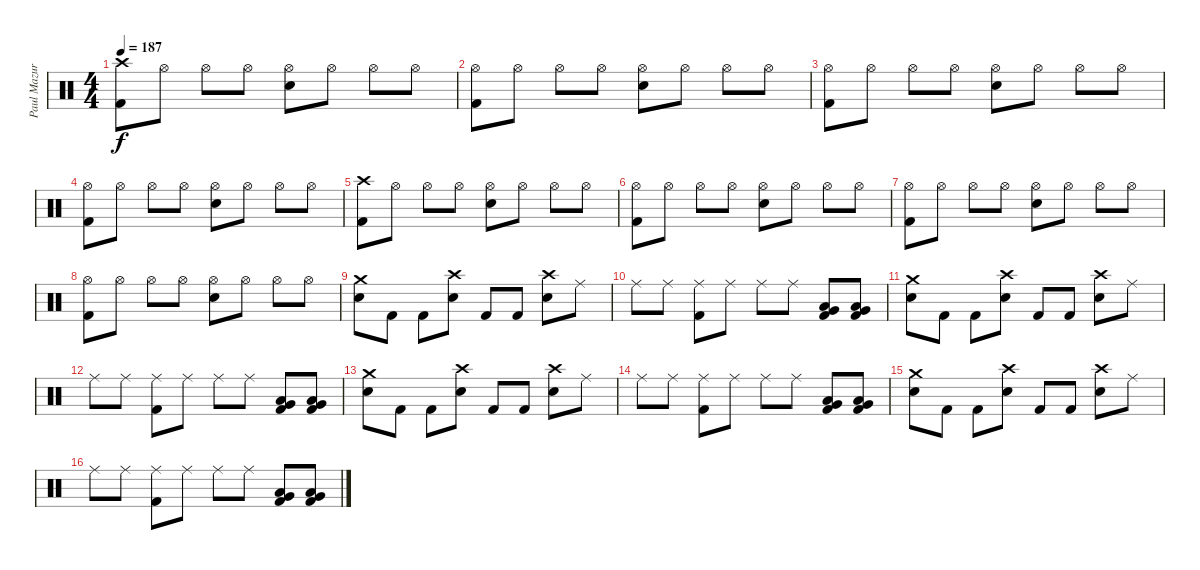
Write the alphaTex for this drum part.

\track ("Paul Mazurkiewicz - Drums" "Paul Mazur") {instrument percussion}
\staff {score}
\articulation defaults
\ts (4 4)
\tempo 187
\clef neutral
\ks c
("Crash high (hit)" "Kick (hit) 2").8{dy f} "Hi-Hat (open)".8 "Hi-Hat (open)".8 "Hi-Hat (open)".8 ("Hi-Hat (open)" "Snare (hit) 2").8 "Hi-Hat (open)".8 "Hi-Hat (open)".8 "Hi-Hat (open)".8 |
("Hi-Hat (open)" "Kick (hit) 2").8 "Hi-Hat (open)".8 "Hi-Hat (open)".8 "Hi-Hat (open)".8 ("Hi-Hat (open)" "Snare (hit) 2").8 "Hi-Hat (open)".8 "Hi-Hat (open)".8 "Hi-Hat (open)".8 |
("Hi-Hat (open)" "Kick (hit) 2").8 "Hi-Hat (open)".8 "Hi-Hat (open)".8 "Hi-Hat (open)".8 ("Hi-Hat (open)" "Snare (hit) 2").8 "Hi-Hat (open)".8 "Hi-Hat (open)".8 "Hi-Hat (open)".8 |
("Hi-Hat (open)" "Kick (hit) 2").8 "Hi-Hat (open)".8 "Hi-Hat (open)".8 "Hi-Hat (open)".8 ("Hi-Hat (open)" "Snare (hit) 2").8 "Hi-Hat (open)".8 "Hi-Hat (open)".8 "Hi-Hat (open)".8 |
("Crash high (hit)" "Kick (hit) 2").8 "Hi-Hat (open)".8 "Hi-Hat (open)".8 "Hi-Hat (open)".8 ("Hi-Hat (open)" "Snare (hit) 2").8 "Hi-Hat (open)".8 "Hi-Hat (open)".8 "Hi-Hat (open)".8 |
("Hi-Hat (open)" "Kick (hit) 2").8 "Hi-Hat (open)".8 "Hi-Hat (open)".8 "Hi-Hat (open)".8 ("Hi-Hat (open)" "Snare (hit) 2").8 "Hi-Hat (open)".8 "Hi-Hat (open)".8 "Hi-Hat (open)".8 |
("Hi-Hat (open)" "Kick (hit) 2").8 "Hi-Hat (open)".8 "Hi-Hat (open)".8 "Hi-Hat (open)".8 ("Hi-Hat (open)" "Snare (hit) 2").8 "Hi-Hat (open)".8 "Hi-Hat (open)".8 "Hi-Hat (open)".8 |
("Hi-Hat (open)" "Kick (hit) 2").8 "Hi-Hat (open)".8 "Hi-Hat (open)".8 "Hi-Hat (open)".8 ("Hi-Hat (open)" "Snare (hit) 2").8 "Hi-Hat (open)".8 "Hi-Hat (open)".8 "Hi-Hat (open)".8 |
("Crash medium (hit)" "Snare (hit) 2").8 "Kick (hit) 2".8 "Kick (hit) 2".8 ("Crash high (hit)" "Snare (hit) 2").8 "Kick (hit) 2".8 "Kick (hit) 2".8 ("Crash high (hit)" "Snare (hit) 2").8 "Ride (middle)".8 |
"Ride (middle)".8 "Ride (middle)".8 ("Ride (middle)" "Kick (hit) 2").8 "Ride (middle)".8 "Ride (middle)".8 "Ride (middle)".8 ("Kick (hit) 2" "Low Floor Tom (hit)" "Very Low Tom (hit)").8 ("Kick (hit) 2" "Low Floor Tom (hit)" "Very Low Tom (hit)").8 |
("Crash medium (hit)" "Snare (hit) 2").8 "Kick (hit) 2".8 "Kick (hit) 2".8 ("Crash high (hit)" "Snare (hit) 2").8 "Kick (hit) 2".8 "Kick (hit) 2".8 ("Crash high (hit)" "Snare (hit) 2").8 "Ride (middle)".8 |
"Ride (middle)".8 "Ride (middle)".8 ("Ride (middle)" "Kick (hit) 2").8 "Ride (middle)".8 "Ride (middle)".8 "Ride (middle)".8 ("Kick (hit) 2" "Low Floor Tom (hit)" "Very Low Tom (hit)").8 ("Kick (hit) 2" "Low Floor Tom (hit)" "Very Low Tom (hit)").8 |
("Crash medium (hit)" "Snare (hit) 2").8 "Kick (hit) 2".8 "Kick (hit) 2".8 ("Crash high (hit)" "Snare (hit) 2").8 "Kick (hit) 2".8 "Kick (hit) 2".8 ("Crash high (hit)" "Snare (hit) 2").8 "Ride (middle)".8 |
"Ride (middle)".8 "Ride (middle)".8 ("Ride (middle)" "Kick (hit) 2").8 "Ride (middle)".8 "Ride (middle)".8 "Ride (middle)".8 ("Kick (hit) 2" "Low Floor Tom (hit)" "Very Low Tom (hit)").8 ("Kick (hit) 2" "Low Floor Tom (hit)" "Very Low Tom (hit)").8 |
("Crash medium (hit)" "Snare (hit) 2").8 "Kick (hit) 2".8 "Kick (hit) 2".8 ("Crash high (hit)" "Snare (hit) 2").8 "Kick (hit) 2".8 "Kick (hit) 2".8 ("Crash high (hit)" "Snare (hit) 2").8 "Ride (middle)".8 |
"Ride (middle)".8 "Ride (middle)".8 ("Ride (middle)" "Kick (hit) 2").8 "Ride (middle)".8 "Ride (middle)".8 "Ride (middle)".8 ("Kick (hit) 2" "Low Floor Tom (hit)" "Very Low Tom (hit)").8 ("Kick (hit) 2" "Low Floor Tom (hit)" "Very Low Tom (hit)").8
